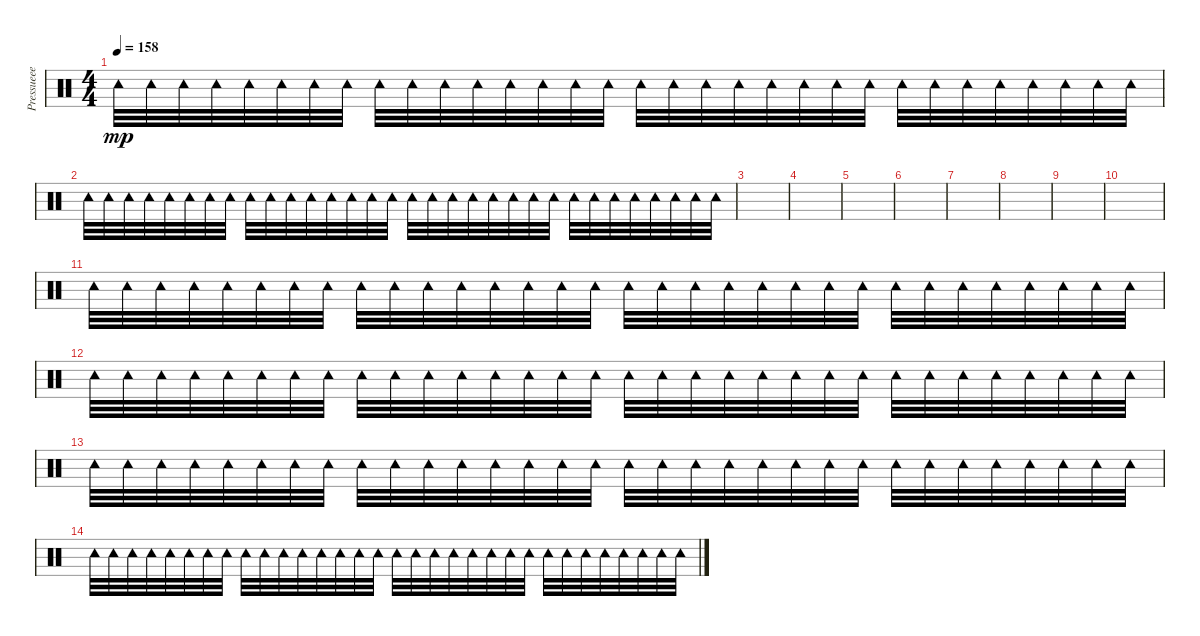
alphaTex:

\track ("Pressueee " "Pressueee ") {instrument percussion}
\staff {score}
\articulation defaults
\ts (4 4)
\tempo 158
\clef neutral
\ks c "Tambourine (hit)".32{dy mp} "Tambourine (hit)".32 "Tambourine (hit)".32 "Tambourine (hit)".32 "Tambourine (hit)".32 "Tambourine (hit)".32 "Tambourine (hit)".32 "Tambourine (hit)".32 "Tambourine (hit)".32 "Tambourine (hit)".32 "Tambourine (hit)".32 "Tambourine (hit)".32 "Tambourine (hit)".32 "Tambourine (hit)".32 "Tambourine (hit)".32 "Tambourine (hit)".32 "Tambourine (hit)".32 "Tambourine (hit)".32 "Tambourine (hit)".32 "Tambourine (hit)".32 "Tambourine (hit)".32 "Tambourine (hit)".32 "Tambourine (hit)".32 "Tambourine (hit)".32 "Tambourine (hit)".32 "Tambourine (hit)".32 "Tambourine (hit)".32 "Tambourine (hit)".32 "Tambourine (hit)".32 "Tambourine (hit)".32 "Tambourine (hit)".32 "Tambourine (hit)".32
|
"Tambourine (hit)".32 "Tambourine (hit)".32 "Tambourine (hit)".32 "Tambourine (hit)".32 "Tambourine (hit)".32 "Tambourine (hit)".32 "Tambourine (hit)".32 "Tambourine (hit)".32 "Tambourine (hit)".32 "Tambourine (hit)".32 "Tambourine (hit)".32 "Tambourine (hit)".32 "Tambourine (hit)".32 "Tambourine (hit)".32 "Tambourine (hit)".32 "Tambourine (hit)".32 "Tambourine (hit)".32 "Tambourine (hit)".32 "Tambourine (hit)".32 "Tambourine (hit)".32 "Tambourine (hit)".32 "Tambourine (hit)".32 "Tambourine (hit)".32 "Tambourine (hit)".32 "Tambourine (hit)".32 "Tambourine (hit)".32 "Tambourine (hit)".32 "Tambourine (hit)".32 "Tambourine (hit)".32 "Tambourine (hit)".32 "Tambourine (hit)".32 "Tambourine (hit)".32 |
|
|
|
|
|
|
|
|
"Tambourine (hit)".32 "Tambourine (hit)".32 "Tambourine (hit)".32 "Tambourine (hit)".32 "Tambourine (hit)".32 "Tambourine (hit)".32 "Tambourine (hit)".32 "Tambourine (hit)".32 "Tambourine (hit)".32 "Tambourine (hit)".32 "Tambourine (hit)".32 "Tambourine (hit)".32 "Tambourine (hit)".32 "Tambourine (hit)".32 "Tambourine (hit)".32 "Tambourine (hit)".32 "Tambourine (hit)".32 "Tambourine (hit)".32 "Tambourine (hit)".32 "Tambourine (hit)".32 "Tambourine (hit)".32 "Tambourine (hit)".32 "Tambourine (hit)".32 "Tambourine (hit)".32 "Tambourine (hit)".32 "Tambourine (hit)".32 "Tambourine (hit)".32 "Tambourine (hit)".32 "Tambourine (hit)".32 "Tambourine (hit)".32 "Tambourine (hit)".32 "Tambourine (hit)".32 |
"Tambourine (hit)".32 "Tambourine (hit)".32 "Tambourine (hit)".32 "Tambourine (hit)".32 "Tambourine (hit)".32 "Tambourine (hit)".32 "Tambourine (hit)".32 "Tambourine (hit)".32 "Tambourine (hit)".32 "Tambourine (hit)".32 "Tambourine (hit)".32 "Tambourine (hit)".32 "Tambourine (hit)".32 "Tambourine (hit)".32 "Tambourine (hit)".32 "Tambourine (hit)".32 "Tambourine (hit)".32 "Tambourine (hit)".32 "Tambourine (hit)".32 "Tambourine (hit)".32 "Tambourine (hit)".32 "Tambourine (hit)".32 "Tambourine (hit)".32 "Tambourine (hit)".32 "Tambourine (hit)".32 "Tambourine (hit)".32 "Tambourine (hit)".32 "Tambourine (hit)".32 "Tambourine (hit)".32 "Tambourine (hit)".32 "Tambourine (hit)".32 "Tambourine (hit)".32 |
"Tambourine (hit)".32 "Tambourine (hit)".32 "Tambourine (hit)".32 "Tambourine (hit)".32 "Tambourine (hit)".32 "Tambourine (hit)".32 "Tambourine (hit)".32 "Tambourine (hit)".32 "Tambourine (hit)".32 "Tambourine (hit)".32 "Tambourine (hit)".32 "Tambourine (hit)".32 "Tambourine (hit)".32 "Tambourine (hit)".32 "Tambourine (hit)".32 "Tambourine (hit)".32 "Tambourine (hit)".32 "Tambourine (hit)".32 "Tambourine (hit)".32 "Tambourine (hit)".32 "Tambourine (hit)".32 "Tambourine (hit)".32 "Tambourine (hit)".32 "Tambourine (hit)".32 "Tambourine (hit)".32 "Tambourine (hit)".32 "Tambourine (hit)".32 "Tambourine (hit)".32 "Tambourine (hit)".32 "Tambourine (hit)".32 "Tambourine (hit)".32 "Tambourine (hit)".32 |
"Tambourine (hit)".32 "Tambourine (hit)".32 "Tambourine (hit)".32 "Tambourine (hit)".32 "Tambourine (hit)".32 "Tambourine (hit)".32 "Tambourine (hit)".32 "Tambourine (hit)".32 "Tambourine (hit)".32 "Tambourine (hit)".32 "Tambourine (hit)".32 "Tambourine (hit)".32 "Tambourine (hit)".32 "Tambourine (hit)".32 "Tambourine (hit)".32 "Tambourine (hit)".32 "Tambourine (hit)".32 "Tambourine (hit)".32 "Tambourine (hit)".32 "Tambourine (hit)".32 "Tambourine (hit)".32 "Tambourine (hit)".32 "Tambourine (hit)".32 "Tambourine (hit)".32 "Tambourine (hit)".32 "Tambourine (hit)".32 "Tambourine (hit)".32 "Tambourine (hit)".32 "Tambourine (hit)".32 "Tambourine (hit)".32 "Tambourine (hit)".32 "Tambourine (hit)".32
